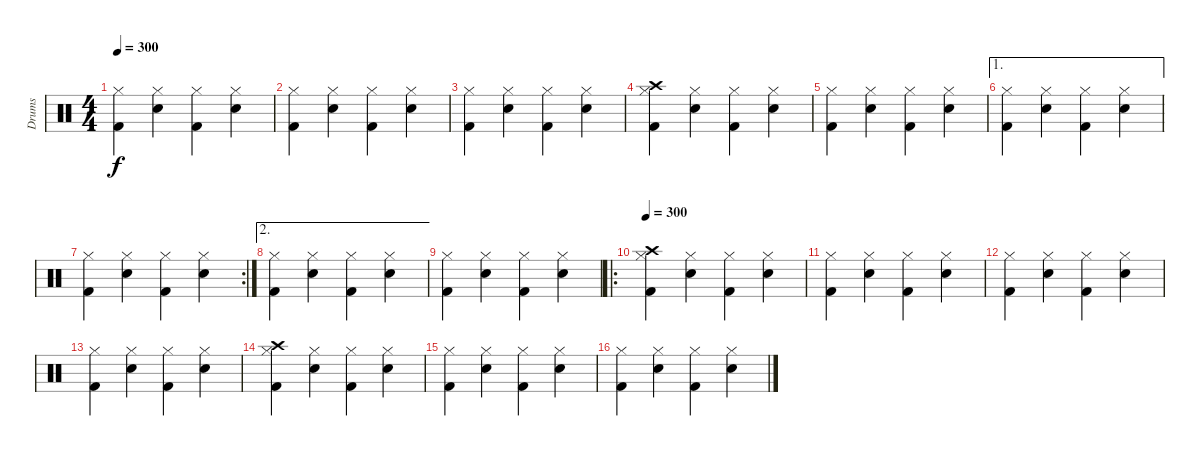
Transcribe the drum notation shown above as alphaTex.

\track ("Drums" "Drums") {instrument percussion}
\staff {score}
\articulation defaults
\ts (4 4)
\tempo 300
\clef neutral
\ks c
("Hi-Hat (closed)" "Kick (hit) 2").4{dy f} ("Hi-Hat (closed)" "Snare (hit) 2").4 ("Hi-Hat (closed)" "Kick (hit) 2").4 ("Hi-Hat (closed)" "Snare (hit) 2").4 |
("Hi-Hat (closed)" "Kick (hit) 2").4 ("Hi-Hat (closed)" "Snare (hit) 2").4 ("Hi-Hat (closed)" "Kick (hit) 2").4 ("Hi-Hat (closed)" "Snare (hit) 2").4 |
("Hi-Hat (closed)" "Kick (hit) 2").4 ("Hi-Hat (closed)" "Snare (hit) 2").4 ("Hi-Hat (closed)" "Kick (hit) 2").4 ("Hi-Hat (closed)" "Snare (hit) 2").4 |
("Hi-Hat (closed)" "Kick (hit) 2" "Crash high (hit)").4 ("Hi-Hat (closed)" "Snare (hit) 2").4 ("Hi-Hat (closed)" "Kick (hit) 2").4 ("Hi-Hat (closed)" "Snare (hit) 2").4 |
("Hi-Hat (closed)" "Kick (hit) 2").4 ("Hi-Hat (closed)" "Snare (hit) 2").4 ("Hi-Hat (closed)" "Kick (hit) 2").4 ("Hi-Hat (closed)" "Snare (hit) 2").4 |
\ae 1
("Hi-Hat (closed)" "Kick (hit) 2").4 ("Hi-Hat (closed)" "Snare (hit) 2").4 ("Hi-Hat (closed)" "Kick (hit) 2").4 ("Hi-Hat (closed)" "Snare (hit) 2").4 |
\rc 2
("Hi-Hat (closed)" "Kick (hit) 2").4 ("Hi-Hat (closed)" "Snare (hit) 2").4 ("Hi-Hat (closed)" "Kick (hit) 2").4 ("Hi-Hat (closed)" "Snare (hit) 2").4 |
\ae 2
("Hi-Hat (closed)" "Kick (hit) 2").4 ("Hi-Hat (closed)" "Snare (hit) 2").4 ("Hi-Hat (closed)" "Kick (hit) 2").4 ("Hi-Hat (closed)" "Snare (hit) 2").4 |
("Hi-Hat (closed)" "Kick (hit) 2").4 ("Hi-Hat (closed)" "Snare (hit) 2").4 ("Hi-Hat (closed)" "Kick (hit) 2").4 ("Hi-Hat (closed)" "Snare (hit) 2").4 |
\ro
\tempo 300
("Hi-Hat (closed)" "Kick (hit) 2" "Crash high (hit)").4 ("Hi-Hat (closed)" "Snare (hit) 2").4 ("Hi-Hat (closed)" "Kick (hit) 2").4 ("Hi-Hat (closed)" "Snare (hit) 2").4 |
("Hi-Hat (closed)" "Kick (hit) 2").4 ("Hi-Hat (closed)" "Snare (hit) 2").4 ("Hi-Hat (closed)" "Kick (hit) 2").4 ("Hi-Hat (closed)" "Snare (hit) 2").4 |
("Hi-Hat (closed)" "Kick (hit) 2").4 ("Hi-Hat (closed)" "Snare (hit) 2").4 ("Hi-Hat (closed)" "Kick (hit) 2").4 ("Hi-Hat (closed)" "Snare (hit) 2").4 |
("Hi-Hat (closed)" "Kick (hit) 2").4 ("Hi-Hat (closed)" "Snare (hit) 2").4 ("Hi-Hat (closed)" "Kick (hit) 2").4 ("Hi-Hat (closed)" "Snare (hit) 2").4 |
("Hi-Hat (closed)" "Kick (hit) 2" "Crash high (hit)").4 ("Hi-Hat (closed)" "Snare (hit) 2").4 ("Hi-Hat (closed)" "Kick (hit) 2").4 ("Hi-Hat (closed)" "Snare (hit) 2").4 |
("Hi-Hat (closed)" "Kick (hit) 2").4 ("Hi-Hat (closed)" "Snare (hit) 2").4 ("Hi-Hat (closed)" "Kick (hit) 2").4 ("Hi-Hat (closed)" "Snare (hit) 2").4 |
("Hi-Hat (closed)" "Kick (hit) 2").4 ("Hi-Hat (closed)" "Snare (hit) 2").4 ("Hi-Hat (closed)" "Kick (hit) 2").4 ("Hi-Hat (closed)" "Snare (hit) 2").4
